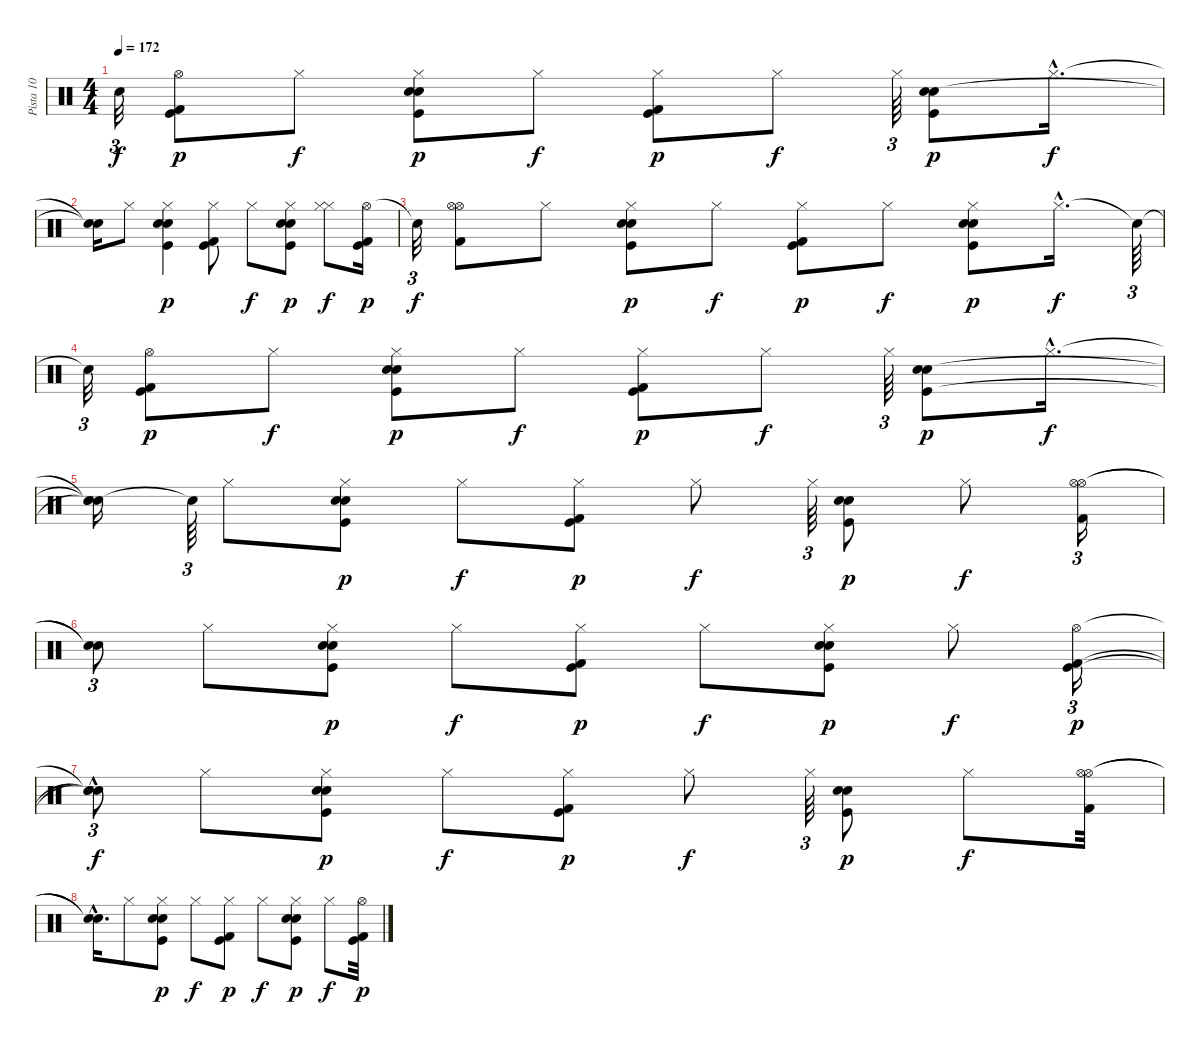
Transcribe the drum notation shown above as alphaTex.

\track ("Pista 10" "Pista 10") {instrument percussion}
\staff {score}
\articulation defaults
\ts (4 4)
\tempo 172
\clef neutral
\ks c "Snare (hit)"{t}.32{tu (3 2) dy f}
("Hi-Hat (open)" "Kick (hit) 2" "Kick (hit)").8{dy p} "Hi-Hat (closed)".8{dy f} ("Hi-Hat (closed)" "Snare (hit) 2" "Electric Snare (hit)" "Kick (hit)").8{dy p} "Hi-Hat (closed)".8{dy f} ("Hi-Hat (closed)" "Kick (hit) 2" "Kick (hit)").8{dy p} "Hi-Hat (closed)".8{dy f} "Hi-Hat (closed)".64{tu (3 2)} ("Snare (hit) 2" "Electric Snare (hit)" "Kick (hit)").8{dy p} "Hi-Hat (closed)"{hac}.16{d dy f} |
("Snare (hit)"{t} "Snare (hit)"{t}).16 "Hi-Hat (closed)".8 ("Hi-Hat (closed)" "Electric Snare (hit)" "Snare (hit) 2" "Kick (hit)").4{dy p} ("Hi-Hat (closed)" "Kick (hit) 2" "Kick (hit)").8 "Hi-Hat (closed)".8{dy f} ("Hi-Hat (closed)" "Snare (hit) 2" "Electric Snare (hit)" "Kick (hit)").8{dy p} ("Hi-Hat (closed)" "Hi-Hat (closed)").8{dy f} ("Hi-Hat (open)" "Kick (hit) 2" "Kick (hit)").16{dy p} |
"Snare (hit)"{t}.32{tu (3 2) dy f} ("Hi-Hat (open)" "Hi-Hat (open)" "Kick (hit) 2").8 "Hi-Hat (closed)".8 ("Hi-Hat (closed)" "Electric Snare (hit)" "Snare (hit) 2" "Kick (hit)").8{dy p} "Hi-Hat (closed)".8{dy f} ("Kick (hit) 2" "Kick (hit)" "Hi-Hat (closed)").8{dy p} "Hi-Hat (closed)".8{dy f} ("Snare (hit) 2" "Electric Snare (hit)" "Kick (hit)" "Hi-Hat (closed)").8{dy p} "Hi-Hat (closed)"{hac}.16{d dy f} "Snare (hit)"{t}.64{tu (3 2)} |
"Snare (hit)"{t}.32{tu (3 2)} ("Hi-Hat (open)" "Kick (hit) 2" "Kick (hit)").8{dy p} "Hi-Hat (closed)".8{dy f} ("Hi-Hat (closed)" "Snare (hit) 2" "Electric Snare (hit)" "Kick (hit)").8{dy p} "Hi-Hat (closed)".8{dy f} ("Hi-Hat (closed)" "Kick (hit) 2" "Kick (hit)").8{dy p} "Hi-Hat (closed)".8{dy f} "Hi-Hat (closed)".64{tu (3 2)} ("Snare (hit) 2" "Electric Snare (hit)" "Kick (hit)").8{dy p} "Hi-Hat (closed)"{hac}.16{d dy f} |
("Snare (hit)"{t} "Snare (hit)"{t} "Snare (hit)"{t}).16 "Snare (hit)"{t}.64{tu (3 2)} "Hi-Hat (closed)".8 ("Hi-Hat (closed)" "Snare (hit) 2" "Electric Snare (hit)" "Kick (hit)").8{dy p} "Hi-Hat (closed)".8{dy f} ("Hi-Hat (closed)" "Kick (hit) 2" "Kick (hit)").8{dy p} "Hi-Hat (closed)".8{dy f} "Hi-Hat (closed)".64{tu (3 2)} ("Snare (hit) 2" "Electric Snare (hit)" "Kick (hit)").8{dy p} "Hi-Hat (closed)".8{dy f} ("Hi-Hat (open)" "Hi-Hat (open)" "Kick (hit) 2").16{tu (3 2)} |
("Snare (hit)"{t} "Snare (hit)"{t}).8{tu (3 2)} "Hi-Hat (closed)".8 ("Hi-Hat (closed)" "Electric Snare (hit)" "Snare (hit) 2" "Kick (hit)").8{dy p} "Hi-Hat (closed)".8{dy f} ("Kick (hit) 2" "Kick (hit)" "Hi-Hat (closed)").8{dy p} "Hi-Hat (closed)".8{dy f} ("Snare (hit) 2" "Electric Snare (hit)" "Kick (hit)" "Hi-Hat (closed)").8{dy p} "Hi-Hat (closed)".8{dy f} ("Hi-Hat (open)" "Kick (hit) 2" "Kick (hit)").16{tu (3 2) dy p} |
("Snare (hit)"{t} "Snare (hit)"{t} "Snare (hit)"{hac t}).8{tu (3 2) dy f} "Hi-Hat (closed)".8 ("Hi-Hat (closed)" "Snare (hit) 2" "Electric Snare (hit)" "Kick (hit)").8{dy p} "Hi-Hat (closed)".8{dy f} ("Hi-Hat (closed)" "Kick (hit) 2" "Kick (hit)").8{dy p} "Hi-Hat (closed)".8{dy f} "Hi-Hat (closed)".64{tu (3 2)} ("Snare (hit) 2" "Electric Snare (hit)" "Kick (hit)").8{dy p} "Hi-Hat (closed)".8{dy f} ("Hi-Hat (open)" "Hi-Hat (open)" "Kick (hit) 2").32 |
("Snare (hit)"{hac t} "Snare (hit)"{hac t}).16{d} "Hi-Hat (closed)".8 ("Hi-Hat (closed)" "Electric Snare (hit)" "Snare (hit) 2" "Kick (hit)").8{dy p} "Hi-Hat (closed)".8{dy f} ("Kick (hit) 2" "Kick (hit)" "Hi-Hat (closed)").8{dy p} "Hi-Hat (closed)".8{dy f} ("Snare (hit) 2" "Electric Snare (hit)" "Kick (hit)" "Hi-Hat (closed)").8{dy p} "Hi-Hat (closed)".8{dy f} ("Hi-Hat (open)" "Kick (hit) 2" "Kick (hit)").32{dy p}
